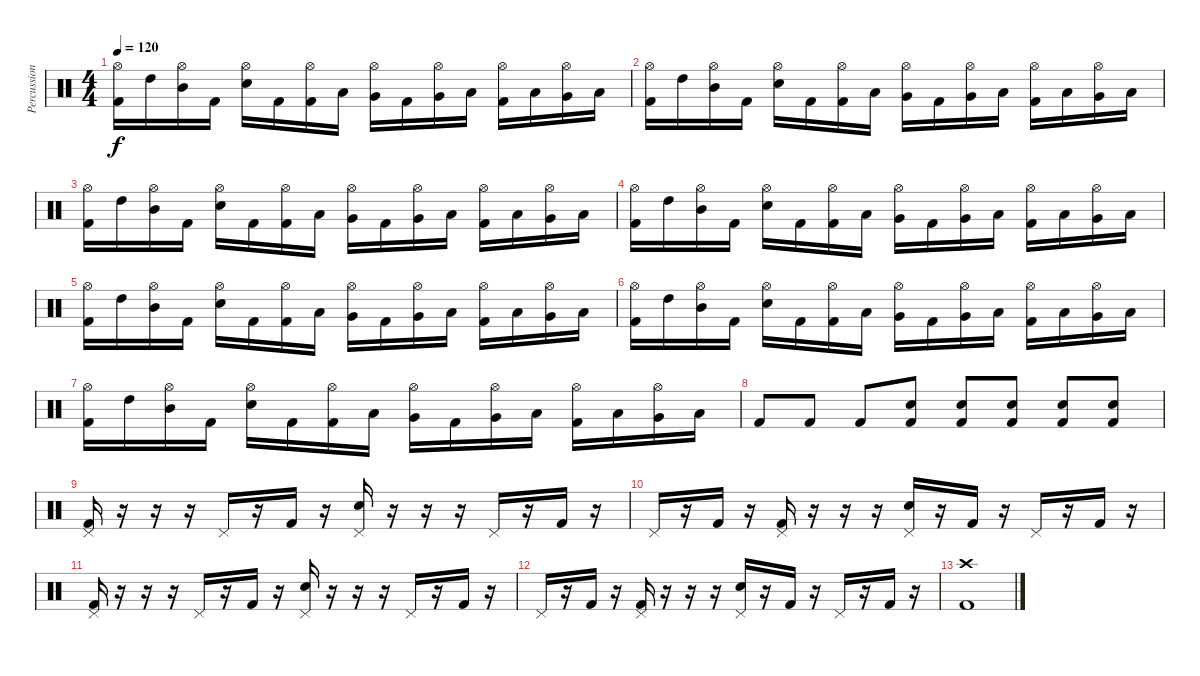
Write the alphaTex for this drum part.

\track ("Percussion" "Percussion") {instrument percussion}
\staff {score}
\articulation defaults
\ts (4 4)
\tempo 120
\clef neutral
\ks c
("Kick (hit) 2" "Hi-Hat (open)").16{dy f} "High Tom (hit)".16 ("Mid Tom (hit)" "Hi-Hat (open)").16 "Kick (hit) 2".16 ("Electric Snare (hit)" "Hi-Hat (open)").16 "Kick (hit) 2".16 ("Kick (hit) 2" "Hi-Hat (open)").16 "Low Tom (hit)".16 ("Very Low Tom (hit)" "Hi-Hat (open)").16 "Kick (hit) 2".16 ("Very Low Tom (hit)" "Hi-Hat (open)").16 "Low Floor Tom (hit)".16 ("Kick (hit) 2" "Hi-Hat (open)").16 "Low Tom (hit)".16 ("Very Low Tom (hit)" "Hi-Hat (open)").16 "Low Floor Tom (hit)".16 |
("Kick (hit) 2" "Hi-Hat (open)").16 "High Tom (hit)".16 ("Mid Tom (hit)" "Hi-Hat (open)").16 "Kick (hit) 2".16 ("Electric Snare (hit)" "Hi-Hat (open)").16 "Kick (hit) 2".16 ("Kick (hit) 2" "Hi-Hat (open)").16 "Low Tom (hit)".16 ("Very Low Tom (hit)" "Hi-Hat (open)").16 "Kick (hit) 2".16 ("Very Low Tom (hit)" "Hi-Hat (open)").16 "Low Floor Tom (hit)".16 ("Kick (hit) 2" "Hi-Hat (open)").16 "Low Tom (hit)".16 ("Very Low Tom (hit)" "Hi-Hat (open)").16 "Low Floor Tom (hit)".16 |
("Kick (hit) 2" "Hi-Hat (open)").16 "High Tom (hit)".16 ("Mid Tom (hit)" "Hi-Hat (open)").16 "Kick (hit) 2".16 ("Electric Snare (hit)" "Hi-Hat (open)").16 "Kick (hit) 2".16 ("Kick (hit) 2" "Hi-Hat (open)").16 "Low Tom (hit)".16 ("Very Low Tom (hit)" "Hi-Hat (open)").16 "Kick (hit) 2".16 ("Very Low Tom (hit)" "Hi-Hat (open)").16 "Low Floor Tom (hit)".16 ("Kick (hit) 2" "Hi-Hat (open)").16 "Low Tom (hit)".16 ("Very Low Tom (hit)" "Hi-Hat (open)").16 "Low Floor Tom (hit)".16 |
("Kick (hit) 2" "Hi-Hat (open)").16 "High Tom (hit)".16 ("Mid Tom (hit)" "Hi-Hat (open)").16 "Kick (hit) 2".16 ("Electric Snare (hit)" "Hi-Hat (open)").16 "Kick (hit) 2".16 ("Kick (hit) 2" "Hi-Hat (open)").16 "Low Tom (hit)".16 ("Very Low Tom (hit)" "Hi-Hat (open)").16 "Kick (hit) 2".16 ("Very Low Tom (hit)" "Hi-Hat (open)").16 "Low Floor Tom (hit)".16 ("Kick (hit) 2" "Hi-Hat (open)").16 "Low Tom (hit)".16 ("Very Low Tom (hit)" "Hi-Hat (open)").16 "Low Floor Tom (hit)".16 |
("Kick (hit) 2" "Hi-Hat (open)").16 "High Tom (hit)".16 ("Mid Tom (hit)" "Hi-Hat (open)").16 "Kick (hit) 2".16 ("Electric Snare (hit)" "Hi-Hat (open)").16 "Kick (hit) 2".16 ("Kick (hit) 2" "Hi-Hat (open)").16 "Low Tom (hit)".16 ("Very Low Tom (hit)" "Hi-Hat (open)").16 "Kick (hit) 2".16 ("Very Low Tom (hit)" "Hi-Hat (open)").16 "Low Floor Tom (hit)".16 ("Kick (hit) 2" "Hi-Hat (open)").16 "Low Tom (hit)".16 ("Very Low Tom (hit)" "Hi-Hat (open)").16 "Low Floor Tom (hit)".16 |
("Kick (hit) 2" "Hi-Hat (open)").16 "High Tom (hit)".16 ("Mid Tom (hit)" "Hi-Hat (open)").16 "Kick (hit) 2".16 ("Electric Snare (hit)" "Hi-Hat (open)").16 "Kick (hit) 2".16 ("Kick (hit) 2" "Hi-Hat (open)").16 "Low Tom (hit)".16 ("Very Low Tom (hit)" "Hi-Hat (open)").16 "Kick (hit) 2".16 ("Very Low Tom (hit)" "Hi-Hat (open)").16 "Low Floor Tom (hit)".16 ("Kick (hit) 2" "Hi-Hat (open)").16 "Low Tom (hit)".16 ("Very Low Tom (hit)" "Hi-Hat (open)").16 "Low Floor Tom (hit)".16 |
("Kick (hit) 2" "Hi-Hat (open)").16 "High Tom (hit)".16 ("Mid Tom (hit)" "Hi-Hat (open)").16 "Kick (hit) 2".16 ("Electric Snare (hit)" "Hi-Hat (open)").16 "Kick (hit) 2".16 ("Kick (hit) 2" "Hi-Hat (open)").16 "Low Tom (hit)".16 ("Very Low Tom (hit)" "Hi-Hat (open)").16 "Kick (hit) 2".16 ("Very Low Tom (hit)" "Hi-Hat (open)").16 "Low Floor Tom (hit)".16 ("Kick (hit) 2" "Hi-Hat (open)").16 "Low Tom (hit)".16 ("Very Low Tom (hit)" "Hi-Hat (open)").16 "Low Floor Tom (hit)".16 |
"Kick (hit) 2".8 "Kick (hit) 2".8 "Kick (hit) 2".8 ("Electric Snare (hit)" "Kick (hit) 2").8 ("Electric Snare (hit)" "Kick (hit) 2").8 ("Electric Snare (hit)" "Kick (hit) 2").8 ("Electric Snare (hit)" "Kick (hit) 2").8 ("Electric Snare (hit)" "Kick (hit) 2").8 |
("Pedal Hi-Hat (hit)" "Kick (hit) 2").16 r.16 r.16 r.16 "Pedal Hi-Hat (hit)".16 r.16 "Kick (hit) 2".16 r.16 ("Pedal Hi-Hat (hit)" "Electric Snare (hit)").16 r.16 r.16 r.16 "Pedal Hi-Hat (hit)".16 r.16 "Kick (hit) 2".16 r.16 |
"Pedal Hi-Hat (hit)".16 r.16 "Kick (hit) 2".16 r.16 ("Pedal Hi-Hat (hit)" "Kick (hit) 2").16 r.16 r.16 r.16 ("Pedal Hi-Hat (hit)" "Electric Snare (hit)").16 r.16 "Kick (hit) 2".16 r.16 "Pedal Hi-Hat (hit)".16 r.16 "Kick (hit) 2".16 r.16 |
("Pedal Hi-Hat (hit)" "Kick (hit) 2").16 r.16 r.16 r.16 "Pedal Hi-Hat (hit)".16 r.16 "Kick (hit) 2".16 r.16 ("Pedal Hi-Hat (hit)" "Electric Snare (hit)").16 r.16 r.16 r.16 "Pedal Hi-Hat (hit)".16 r.16 "Kick (hit) 2".16 r.16 |
"Pedal Hi-Hat (hit)".16 r.16 "Kick (hit) 2".16 r.16 ("Pedal Hi-Hat (hit)" "Kick (hit) 2").16 r.16 r.16 r.16 ("Pedal Hi-Hat (hit)" "Electric Snare (hit)").16 r.16 "Kick (hit) 2".16 r.16 "Pedal Hi-Hat (hit)".16 r.16 "Kick (hit) 2".16 r.16 |
("Crash high (hit)" "Kick (hit) 2").1
